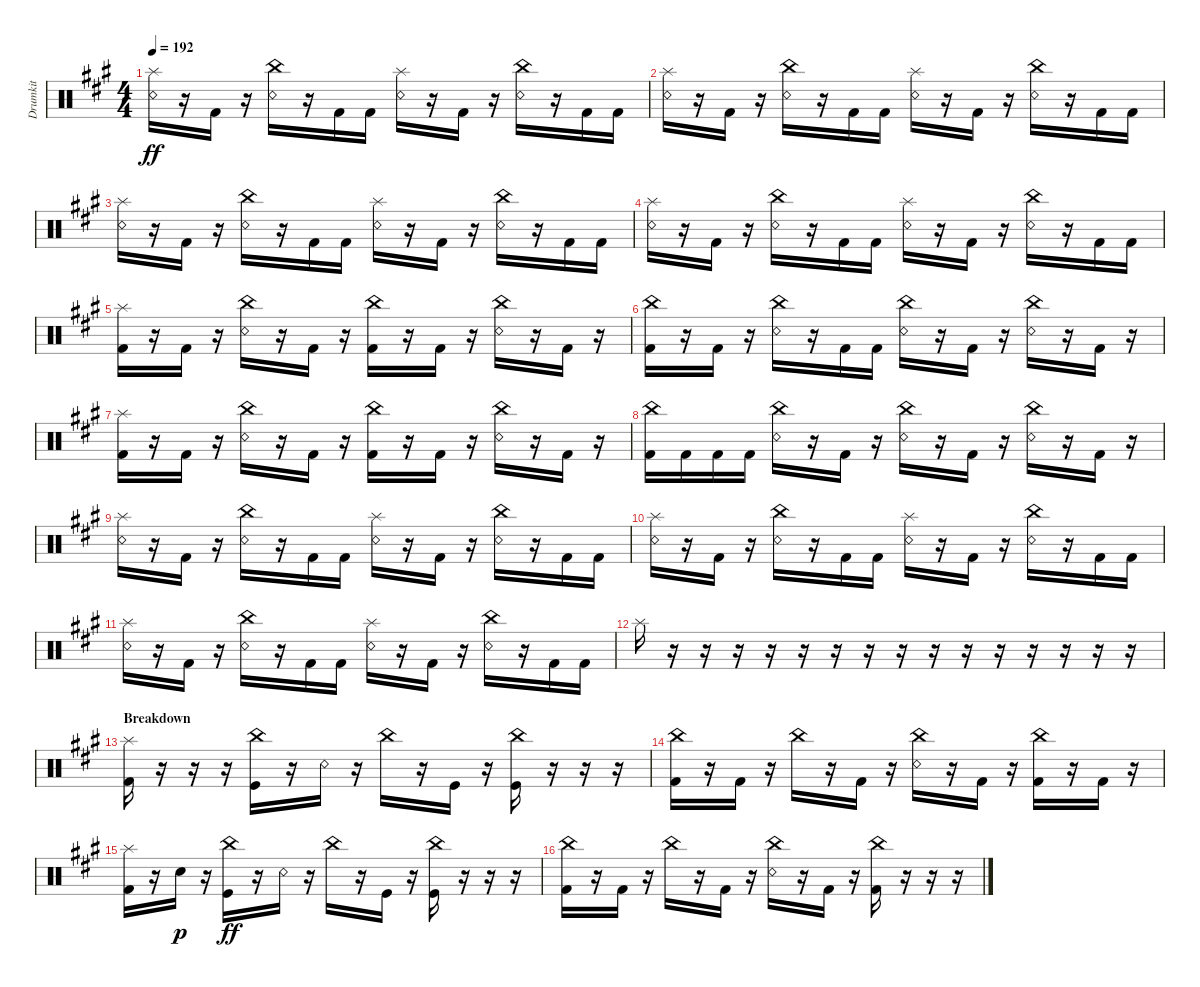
\track ("Drumkit" "Drumkit") {instrument percussion}
\staff {score}
\articulation defaults
\ts (4 4)
\tempo 192
\clef neutral
\ks a
("Snare (rim shot)" "Splash (hit)").16{dy ff} r.16 "Kick (hit) 2".16 r.16 ("China (hit)" "Snare (rim shot)").16 r.16 "Kick (hit) 2".16 "Kick (hit) 2".16 ("Snare (rim shot)" "Splash (hit)").16 r.16 "Kick (hit) 2".16 r.16 ("China (hit)" "Snare (rim shot)").16 r.16 "Kick (hit) 2".16 "Kick (hit) 2".16 |
("Snare (rim shot)" "Splash (hit)").16 r.16 "Kick (hit) 2".16 r.16 ("China (hit)" "Snare (rim shot)").16 r.16 "Kick (hit) 2".16 "Kick (hit) 2".16 ("Snare (rim shot)" "Splash (hit)").16 r.16 "Kick (hit) 2".16 r.16 ("China (hit)" "Snare (rim shot)").16 r.16 "Kick (hit) 2".16 "Kick (hit) 2".16 |
("Snare (rim shot)" "Splash (hit)").16 r.16 "Kick (hit) 2".16 r.16 ("China (hit)" "Snare (rim shot)").16 r.16 "Kick (hit) 2".16 "Kick (hit) 2".16 ("Snare (rim shot)" "Splash (hit)").16 r.16 "Kick (hit) 2".16 r.16 ("China (hit)" "Snare (rim shot)").16 r.16 "Kick (hit) 2".16 "Kick (hit) 2".16 |
("Snare (rim shot)" "Splash (hit)").16 r.16 "Kick (hit) 2".16 r.16 ("China (hit)" "Snare (rim shot)").16 r.16 "Kick (hit) 2".16 "Kick (hit) 2".16 ("Snare (rim shot)" "Splash (hit)").16 r.16 "Kick (hit) 2".16 r.16 ("China (hit)" "Snare (rim shot)").16 r.16 "Kick (hit) 2".16 "Kick (hit) 2".16 |
("Kick (hit) 2" "Splash (hit)").16 r.16 "Kick (hit) 2".16 r.16 ("China (hit)" "Snare (rim shot)").16 r.16 "Kick (hit) 2".16 r.16 ("China (hit)" "Kick (hit) 2").16 r.16 "Kick (hit) 2".16 r.16 ("China (hit)" "Snare (rim shot)").16 r.16 "Kick (hit) 2".16 r.16 |
("Kick (hit) 2" "China (hit)").16 r.16 "Kick (hit) 2".16 r.16 ("China (hit)" "Snare (rim shot)").16 r.16 "Kick (hit) 2".16 "Kick (hit) 2".16 ("China (hit)" "Snare (rim shot)").16 r.16 "Kick (hit) 2".16 r.16 ("China (hit)" "Snare (rim shot)").16 r.16 "Kick (hit) 2".16 r.16 |
("Kick (hit) 2" "Splash (hit)").16 r.16 "Kick (hit) 2".16 r.16 ("China (hit)" "Snare (rim shot)").16 r.16 "Kick (hit) 2".16 r.16 ("China (hit)" "Kick (hit) 2").16 r.16 "Kick (hit) 2".16 r.16 ("China (hit)" "Snare (rim shot)").16 r.16 "Kick (hit) 2".16 r.16 |
("Kick (hit) 2" "China (hit)").16 "Kick (hit) 2".16 "Kick (hit) 2".16 "Kick (hit) 2".16 ("China (hit)" "Snare (rim shot)").16 r.16 "Kick (hit) 2".16 r.16 ("China (hit)" "Snare (rim shot)").16 r.16 "Kick (hit) 2".16 r.16 ("China (hit)" "Snare (rim shot)").16 r.16 "Kick (hit) 2".16 r.16 |
("Snare (rim shot)" "Splash (hit)").16 r.16 "Kick (hit) 2".16 r.16 ("China (hit)" "Snare (rim shot)").16 r.16 "Kick (hit) 2".16 "Kick (hit) 2".16 ("Snare (rim shot)" "Splash (hit)").16 r.16 "Kick (hit) 2".16 r.16 ("China (hit)" "Snare (rim shot)").16 r.16 "Kick (hit) 2".16 "Kick (hit) 2".16 |
("Snare (rim shot)" "Splash (hit)").16 r.16 "Kick (hit) 2".16 r.16 ("China (hit)" "Snare (rim shot)").16 r.16 "Kick (hit) 2".16 "Kick (hit) 2".16 ("Snare (rim shot)" "Splash (hit)").16 r.16 "Kick (hit) 2".16 r.16 ("China (hit)" "Snare (rim shot)").16 r.16 "Kick (hit) 2".16 "Kick (hit) 2".16 |
("Snare (rim shot)" "Splash (hit)").16 r.16 "Kick (hit) 2".16 r.16 ("China (hit)" "Snare (rim shot)").16 r.16 "Kick (hit) 2".16 "Kick (hit) 2".16 ("Snare (rim shot)" "Splash (hit)").16 r.16 "Kick (hit) 2".16 r.16 ("China (hit)" "Snare (rim shot)").16 r.16 "Kick (hit) 2".16 "Kick (hit) 2".16 |
"Splash (hit)".16 r.16 r.16 r.16 r.16 r.16 r.16 r.16 r.16 r.16 r.16 r.16 r.16 r.16 r.16 r.16 |
\section ("" "Breakdown")
("Kick (hit) 2" "Splash (hit)").16 r.16 r.16 r.16 ("China (hit)" "Kick (hit)").16 r.16 "Snare (rim shot)".16 r.16 "China (hit)".16 r.16 "Kick (hit)".16 r.16 ("China (hit)" "Kick (hit)").16 r.16 r.16 r.16 |
("Kick (hit) 2" "China (hit)").16 r.16 "Kick (hit) 2".16 r.16 "China (hit)".16 r.16 "Kick (hit) 2".16 r.16 ("Snare (rim shot)" "China (hit)").16 r.16 "Kick (hit) 2".16 r.16 ("Kick (hit) 2" "China (hit)").16 r.16 "Kick (hit) 2".16 r.16 |
("Kick (hit) 2" "Splash (hit)").16 r.16 "Snare (hit) 2".16{dy p} r.16 ("China (hit)" "Kick (hit)").16{dy ff} r.16 "Snare (rim shot)".16 r.16 "China (hit)".16 r.16 "Kick (hit)".16 r.16 ("China (hit)" "Kick (hit)").16 r.16 r.16 r.16 |
("Kick (hit) 2" "China (hit)").16 r.16 "Kick (hit) 2".16 r.16 "China (hit)".16 r.16 "Kick (hit) 2".16 r.16 ("Snare (rim shot)" "China (hit)").16 r.16 "Kick (hit) 2".16 r.16 ("Kick (hit) 2" "China (hit)").16 r.16 r.16 r.16
